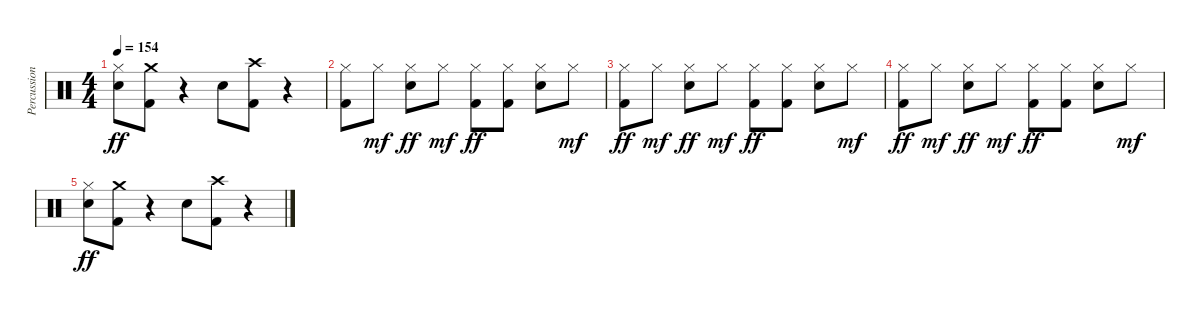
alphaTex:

\track ("Percussions" "Percussion") {instrument percussion}
\staff {score}
\articulation defaults
\ts (4 4)
\tempo 154
\clef neutral
\ks c
("Hi-Hat (closed)" "Electric Snare (hit)").8{dy ff} ("Crash medium (hit)" "Kick (hit) 2").8 r.4 "Electric Snare (hit)".8 ("Crash high (hit)" "Kick (hit) 2").8 r.4 |
("Hi-Hat (closed)" "Kick (hit) 2").8 "Hi-Hat (closed)".8{dy mf} ("Hi-Hat (closed)" "Electric Snare (hit)").8{dy ff} "Hi-Hat (closed)".8{dy mf} ("Hi-Hat (closed)" "Kick (hit) 2").8{dy ff} ("Hi-Hat (closed)" "Kick (hit) 2").8 ("Hi-Hat (closed)" "Electric Snare (hit)").8 "Hi-Hat (closed)".8{dy mf} |
("Hi-Hat (closed)" "Kick (hit) 2").8{dy ff} "Hi-Hat (closed)".8{dy mf} ("Hi-Hat (closed)" "Electric Snare (hit)").8{dy ff} "Hi-Hat (closed)".8{dy mf} ("Hi-Hat (closed)" "Kick (hit) 2").8{dy ff} ("Hi-Hat (closed)" "Kick (hit) 2").8 ("Hi-Hat (closed)" "Electric Snare (hit)").8 "Hi-Hat (closed)".8{dy mf} |
("Hi-Hat (closed)" "Kick (hit) 2").8{dy ff} "Hi-Hat (closed)".8{dy mf} ("Hi-Hat (closed)" "Electric Snare (hit)").8{dy ff} "Hi-Hat (closed)".8{dy mf} ("Hi-Hat (closed)" "Kick (hit) 2").8{dy ff} ("Hi-Hat (closed)" "Kick (hit) 2").8 ("Hi-Hat (closed)" "Electric Snare (hit)").8 "Hi-Hat (closed)".8{dy mf} |
("Hi-Hat (closed)" "Electric Snare (hit)").8{dy ff} ("Crash medium (hit)" "Kick (hit) 2").8 r.4 "Electric Snare (hit)".8 ("Crash high (hit)" "Kick (hit) 2").8 r.4
